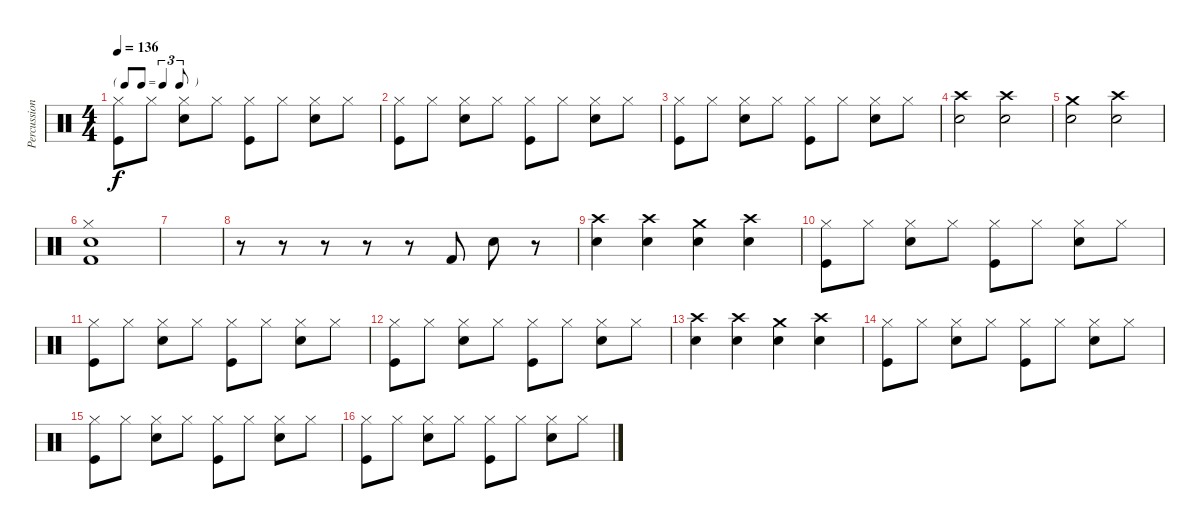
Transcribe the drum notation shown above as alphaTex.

\track ("Percussion" "Percussion") {instrument percussion}
\staff {score}
\articulation defaults
\ts (4 4)
\tf triplet8th
\tempo 136
\clef neutral
\ks c
("Hi-Hat (closed)" "Kick (hit)").8{dy f} "Hi-Hat (closed)".8 ("Hi-Hat (closed)" "Snare (hit) 2").8 "Hi-Hat (closed)".8 ("Hi-Hat (closed)" "Kick (hit)").8 "Hi-Hat (closed)".8 ("Hi-Hat (closed)" "Snare (hit) 2").8 "Hi-Hat (closed)".8 |
("Hi-Hat (closed)" "Kick (hit)").8 "Hi-Hat (closed)".8 ("Hi-Hat (closed)" "Snare (hit) 2").8 "Hi-Hat (closed)".8 ("Hi-Hat (closed)" "Kick (hit)").8 "Hi-Hat (closed)".8 ("Hi-Hat (closed)" "Snare (hit) 2").8 "Hi-Hat (closed)".8 |
("Hi-Hat (closed)" "Kick (hit)").8 "Hi-Hat (closed)".8 ("Hi-Hat (closed)" "Snare (hit) 2").8 "Hi-Hat (closed)".8 ("Hi-Hat (closed)" "Kick (hit)").8 "Hi-Hat (closed)".8 ("Hi-Hat (closed)" "Snare (hit) 2").8 "Hi-Hat (closed)".8 |
("Crash high (hit)" "Snare (hit) 2").2 ("Crash high (hit)" "Snare (hit) 2").2 |
("Crash medium (hit)" "Snare (hit) 2").2 ("Crash high (hit)" "Snare (hit) 2").2 |
("Hi-Hat (closed)" "Snare (hit) 2" "Kick (hit) 2").1 |
|
r.8 r.8 r.8 r.8 r.8 "Kick (hit) 2".8 "Snare (hit) 2".8 r.8 |
("Crash high (hit)" "Snare (hit) 2").4 ("Crash high (hit)" "Snare (hit) 2").4 ("Crash medium (hit)" "Snare (hit) 2").4 ("Crash high (hit)" "Snare (hit) 2").4 |
("Hi-Hat (closed)" "Kick (hit)").8 "Hi-Hat (closed)".8 ("Hi-Hat (closed)" "Snare (hit) 2").8 "Hi-Hat (closed)".8 ("Hi-Hat (closed)" "Kick (hit)").8 "Hi-Hat (closed)".8 ("Hi-Hat (closed)" "Snare (hit) 2").8 "Hi-Hat (closed)".8 |
("Hi-Hat (closed)" "Kick (hit)").8 "Hi-Hat (closed)".8 ("Hi-Hat (closed)" "Snare (hit) 2").8 "Hi-Hat (closed)".8 ("Hi-Hat (closed)" "Kick (hit)").8 "Hi-Hat (closed)".8 ("Hi-Hat (closed)" "Snare (hit) 2").8 "Hi-Hat (closed)".8 |
("Hi-Hat (closed)" "Kick (hit)").8 "Hi-Hat (closed)".8 ("Hi-Hat (closed)" "Snare (hit) 2").8 "Hi-Hat (closed)".8 ("Hi-Hat (closed)" "Kick (hit)").8 "Hi-Hat (closed)".8 ("Hi-Hat (closed)" "Snare (hit) 2").8 "Hi-Hat (closed)".8 |
("Crash high (hit)" "Snare (hit) 2").4 ("Crash high (hit)" "Snare (hit) 2").4 ("Crash medium (hit)" "Snare (hit) 2").4 ("Crash high (hit)" "Snare (hit) 2").4 |
("Hi-Hat (closed)" "Kick (hit)").8 "Hi-Hat (closed)".8 ("Hi-Hat (closed)" "Snare (hit) 2").8 "Hi-Hat (closed)".8 ("Hi-Hat (closed)" "Kick (hit)").8 "Hi-Hat (closed)".8 ("Hi-Hat (closed)" "Snare (hit) 2").8 "Hi-Hat (closed)".8 |
("Hi-Hat (closed)" "Kick (hit)").8 "Hi-Hat (closed)".8 ("Hi-Hat (closed)" "Snare (hit) 2").8 "Hi-Hat (closed)".8 ("Hi-Hat (closed)" "Kick (hit)").8 "Hi-Hat (closed)".8 ("Hi-Hat (closed)" "Snare (hit) 2").8 "Hi-Hat (closed)".8 |
("Hi-Hat (closed)" "Kick (hit)").8 "Hi-Hat (closed)".8 ("Hi-Hat (closed)" "Snare (hit) 2").8 "Hi-Hat (closed)".8 ("Hi-Hat (closed)" "Kick (hit)").8 "Hi-Hat (closed)".8 ("Hi-Hat (closed)" "Snare (hit) 2").8 "Hi-Hat (closed)".8
